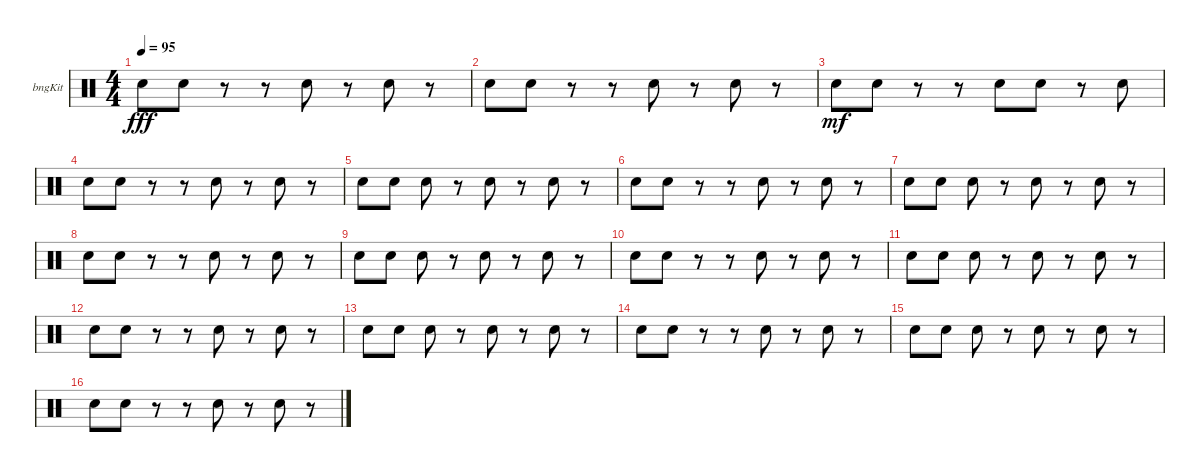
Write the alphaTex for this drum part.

\bracketExtendMode groupsimilarinstruments
\firstSystemTrackNameOrientation horizontal
\otherSystemsTrackNameOrientation horizontal
\track ("Bongos" "bngKit") {instrument percussion}
\staff {score}
\articulation defaults
\ts (4 4)
\tempo 95
\clef neutral
\ks c "Snare (hit) 2".8{dy fff} "Snare (hit) 2".8
r.8 r.8 "Snare (hit) 2".8 r.8 "Snare (hit) 2".8 r.8 |
"Snare (hit) 2".8 "Snare (hit) 2".8 r.8 r.8 "Snare (hit) 2".8 r.8 "Snare (hit) 2".8 r.8 |
"Snare (hit) 2".8{dy mf} "Snare (hit) 2".8 r.8 r.8 "Snare (hit) 2".8 "Snare (hit) 2".8 r.8 "Snare (hit) 2".8 |
"Snare (hit) 2".8 "Snare (hit) 2".8 r.8 r.8 "Snare (hit) 2".8 r.8 "Snare (hit) 2".8 r.8 |
"Snare (hit) 2".8 "Snare (hit) 2".8 "Snare (hit) 2".8 r.8 "Snare (hit) 2".8 r.8 "Snare (hit) 2".8 r.8 |
"Snare (hit) 2".8 "Snare (hit) 2".8 r.8 r.8 "Snare (hit) 2".8 r.8 "Snare (hit) 2".8 r.8 |
"Snare (hit) 2".8 "Snare (hit) 2".8 "Snare (hit) 2".8 r.8 "Snare (hit) 2".8 r.8 "Snare (hit) 2".8 r.8 |
"Snare (hit) 2".8 "Snare (hit) 2".8 r.8 r.8 "Snare (hit) 2".8 r.8 "Snare (hit) 2".8 r.8 |
"Snare (hit) 2".8 "Snare (hit) 2".8 "Snare (hit) 2".8 r.8 "Snare (hit) 2".8 r.8 "Snare (hit) 2".8 r.8 |
"Snare (hit) 2".8 "Snare (hit) 2".8 r.8 r.8 "Snare (hit) 2".8 r.8 "Snare (hit) 2".8 r.8 |
"Snare (hit) 2".8 "Snare (hit) 2".8 "Snare (hit) 2".8 r.8 "Snare (hit) 2".8 r.8 "Snare (hit) 2".8 r.8 |
"Snare (hit) 2".8 "Snare (hit) 2".8 r.8 r.8 "Snare (hit) 2".8 r.8 "Snare (hit) 2".8 r.8 |
"Snare (hit) 2".8 "Snare (hit) 2".8 "Snare (hit) 2".8 r.8 "Snare (hit) 2".8 r.8 "Snare (hit) 2".8 r.8 |
"Snare (hit) 2".8 "Snare (hit) 2".8 r.8 r.8 "Snare (hit) 2".8 r.8 "Snare (hit) 2".8 r.8 |
"Snare (hit) 2".8 "Snare (hit) 2".8 "Snare (hit) 2".8 r.8 "Snare (hit) 2".8 r.8 "Snare (hit) 2".8 r.8 |
"Snare (hit) 2".8 "Snare (hit) 2".8 r.8 r.8 "Snare (hit) 2".8 r.8 "Snare (hit) 2".8 r.8
